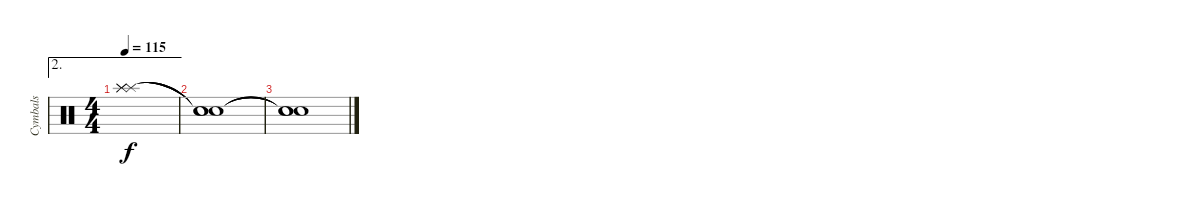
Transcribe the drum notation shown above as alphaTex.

\track ("Cymbals" "Cymbals") {instrument percussion}
\staff {score}
\articulation defaults
\ae 2
\ts (4 4)
\tempo 115
\clef neutral
\ks c
("Splash (hit)" "Splash (hit)" "Splash (hit)").1{dy f} |
("Snare (hit)"{t} "Snare (hit)"{t} "Snare (hit)"{t}).1 |
("Snare (hit)"{t} "Snare (hit)"{t} "Snare (hit)"{t}).1
